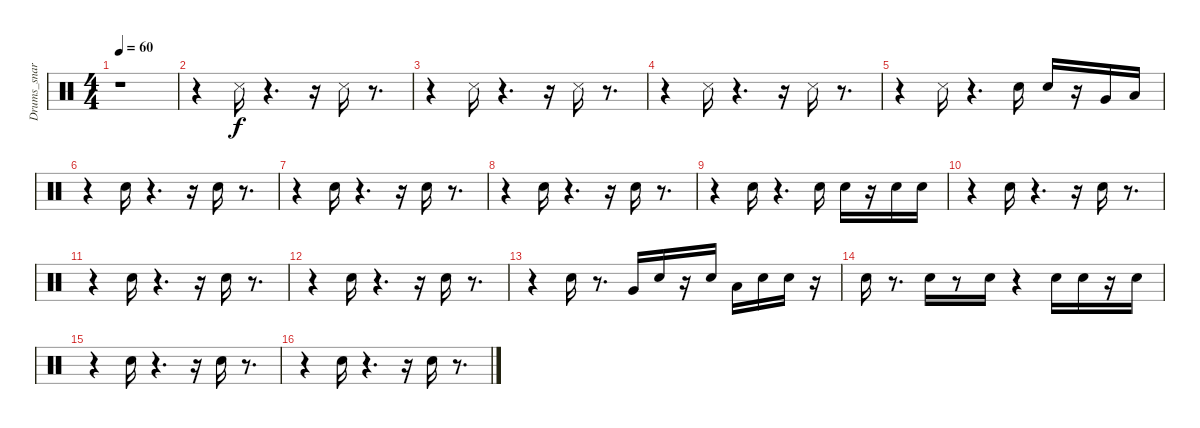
\track ("Drums_snare&tom" "Drums_snar") {instrument percussion}
\staff {score}
\articulation defaults
\ts (4 4)
\tempo 60
\clef neutral
\ks c
r.1{dy f} |
r.4 "Snare (side stick) 3".16 r.4{d} r.16 "Snare (side stick) 3".16 r.8{d} |
r.4 "Snare (side stick) 3".16 r.4{d} r.16 "Snare (side stick) 3".16 r.8{d} |
r.4 "Snare (side stick) 3".16 r.4{d} r.16 "Snare (side stick) 3".16 r.8{d} |
r.4 "Snare (side stick) 3".16 r.4{d} "Electric Snare (hit)".16 "Electric Snare (hit)".16 r.16 "Very Low Tom (hit)".16 "Low Floor Tom (hit)".16 |
r.4 "Electric Snare (hit)".16 r.4{d} r.16 "Electric Snare (hit)".16 r.8{d} |
r.4 "Electric Snare (hit)".16 r.4{d} r.16 "Electric Snare (hit)".16 r.8{d} |
r.4 "Electric Snare (hit)".16 r.4{d} r.16 "Electric Snare (hit)".16 r.8{d} |
r.4 "Electric Snare (hit)".16 r.4{d} "Electric Snare (hit)".16 "Electric Snare (hit)".16 r.16 "Electric Snare (hit)".16 "Electric Snare (hit)".16 |
r.4 "Electric Snare (hit)".16 r.4{d} r.16 "Electric Snare (hit)".16 r.8{d} |
r.4 "Electric Snare (hit)".16 r.4{d} r.16 "Electric Snare (hit)".16 r.8{d} |
r.4 "Electric Snare (hit)".16 r.4{d} r.16 "Electric Snare (hit)".16 r.8{d} |
r.4 "Electric Snare (hit)".16 r.8{d} "Very Low Tom (hit)".16 "Electric Snare (hit)".16 r.16 "Electric Snare (hit)".16 "Low Floor Tom (hit)".16 "Electric Snare (hit)".16 "Electric Snare (hit)".16 r.16 |
"Electric Snare (hit)".16 r.8{d} "Electric Snare (hit)".16 r.8 "Electric Snare (hit)".16 r.4 "Electric Snare (hit)".16 "Electric Snare (hit)".16 r.16 "Electric Snare (hit)".16 |
r.4 "Electric Snare (hit)".16 r.4{d} r.16 "Electric Snare (hit)".16 r.8{d} |
r.4 "Electric Snare (hit)".16 r.4{d} r.16 "Electric Snare (hit)".16 r.8{d}
